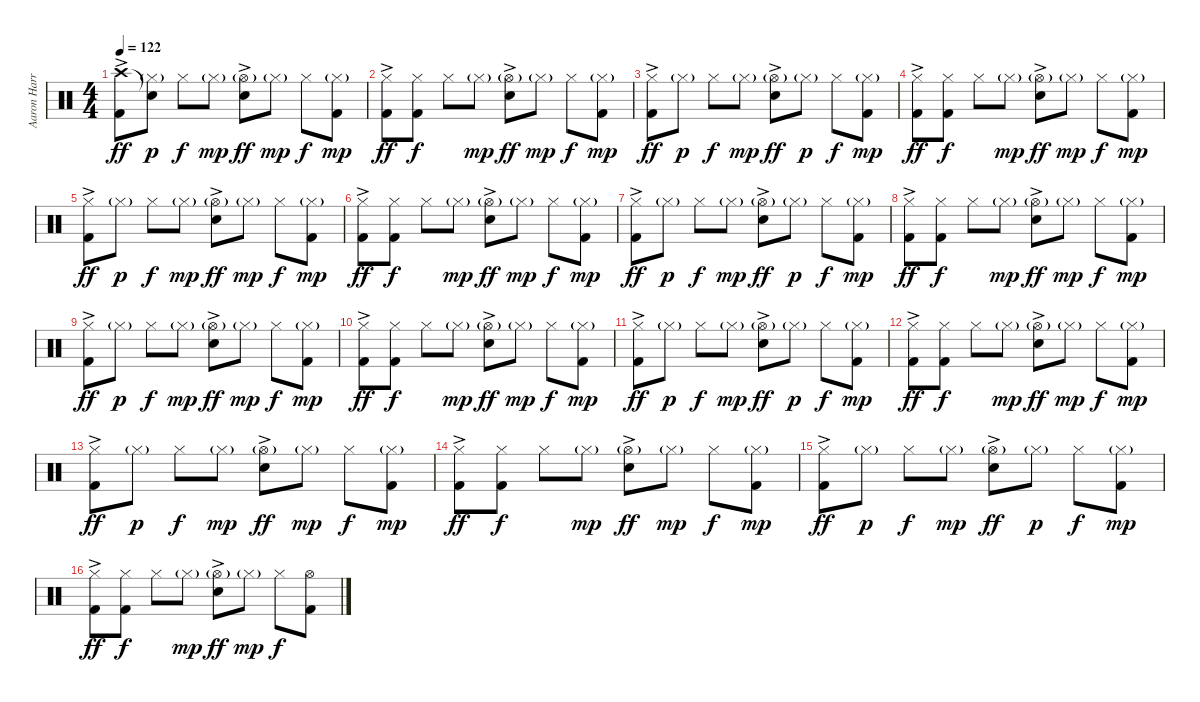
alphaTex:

\track ("Aaron Harris" "Aaron Harr") {instrument percussion}
\staff {score}
\articulation defaults
\ts (4 4)
\tempo 122
\clef neutral
\ks c
("Crash high (hit)" "Kick (hit) 2"{ac}).8{dy ff} ("Snare (hit)"{t} "Hi-Hat (closed)"{g}).8{dy p} "Hi-Hat (closed)".8{dy f} "Hi-Hat (closed)"{g}.8{dy mp} ("Hi-Hat (open)"{g} "Snare (hit) 2"{ac}).8{dy ff} "Hi-Hat (closed)"{g}.8{dy mp} "Hi-Hat (closed)".8{dy f} ("Hi-Hat (closed)"{g} "Kick (hit) 2").8{dy mp} |
("Hi-Hat (closed)" "Kick (hit) 2"{ac}).8{dy ff} ("Hi-Hat (closed)" "Kick (hit) 2").8{dy f} "Hi-Hat (closed)".8 "Hi-Hat (closed)"{g}.8{dy mp} ("Hi-Hat (open)"{g} "Snare (hit) 2"{ac}).8{dy ff} "Hi-Hat (closed)"{g}.8{dy mp} "Hi-Hat (closed)".8{dy f} ("Hi-Hat (closed)"{g} "Kick (hit) 2").8{dy mp} |
("Hi-Hat (closed)" "Kick (hit) 2"{ac}).8{dy ff} "Hi-Hat (closed)"{g}.8{dy p} "Hi-Hat (closed)".8{dy f} "Hi-Hat (closed)"{g}.8{dy mp} ("Hi-Hat (open)"{g} "Snare (hit) 2"{ac}).8{dy ff} "Hi-Hat (closed)"{g}.8{dy p} "Hi-Hat (closed)".8{dy f} ("Hi-Hat (closed)"{g} "Kick (hit) 2").8{dy mp} |
("Hi-Hat (closed)" "Kick (hit) 2"{ac}).8{dy ff} ("Hi-Hat (closed)" "Kick (hit) 2").8{dy f} "Hi-Hat (closed)".8 "Hi-Hat (closed)"{g}.8{dy mp} ("Hi-Hat (open)"{g} "Snare (hit) 2"{ac}).8{dy ff} "Hi-Hat (closed)"{g}.8{dy mp} "Hi-Hat (closed)".8{dy f} ("Hi-Hat (closed)"{g} "Kick (hit) 2").8{dy mp} |
("Hi-Hat (closed)" "Kick (hit) 2"{ac}).8{dy ff} "Hi-Hat (closed)"{g}.8{dy p} "Hi-Hat (closed)".8{dy f} "Hi-Hat (closed)"{g}.8{dy mp} ("Hi-Hat (open)"{g} "Snare (hit) 2"{ac}).8{dy ff} "Hi-Hat (closed)"{g}.8{dy mp} "Hi-Hat (closed)".8{dy f} ("Hi-Hat (closed)"{g} "Kick (hit) 2").8{dy mp} |
("Hi-Hat (closed)" "Kick (hit) 2"{ac}).8{dy ff} ("Hi-Hat (closed)" "Kick (hit) 2").8{dy f} "Hi-Hat (closed)".8 "Hi-Hat (closed)"{g}.8{dy mp} ("Hi-Hat (open)"{g} "Snare (hit) 2"{ac}).8{dy ff} "Hi-Hat (closed)"{g}.8{dy mp} "Hi-Hat (closed)".8{dy f} ("Hi-Hat (closed)"{g} "Kick (hit) 2").8{dy mp} |
("Hi-Hat (closed)" "Kick (hit) 2"{ac}).8{dy ff} "Hi-Hat (closed)"{g}.8{dy p} "Hi-Hat (closed)".8{dy f} "Hi-Hat (closed)"{g}.8{dy mp} ("Hi-Hat (open)"{g} "Snare (hit) 2"{ac}).8{dy ff} "Hi-Hat (closed)"{g}.8{dy p} "Hi-Hat (closed)".8{dy f} ("Hi-Hat (closed)"{g} "Kick (hit) 2").8{dy mp} |
("Hi-Hat (closed)" "Kick (hit) 2"{ac}).8{dy ff} ("Hi-Hat (closed)" "Kick (hit) 2").8{dy f} "Hi-Hat (closed)".8 "Hi-Hat (closed)"{g}.8{dy mp} ("Hi-Hat (open)"{g} "Snare (hit) 2"{ac}).8{dy ff} "Hi-Hat (closed)"{g}.8{dy mp} "Hi-Hat (closed)".8{dy f} ("Hi-Hat (closed)"{g} "Kick (hit) 2").8{dy mp} |
("Hi-Hat (closed)" "Kick (hit) 2"{ac}).8{dy ff} "Hi-Hat (closed)"{g}.8{dy p} "Hi-Hat (closed)".8{dy f} "Hi-Hat (closed)"{g}.8{dy mp} ("Hi-Hat (open)"{g} "Snare (hit) 2"{ac}).8{dy ff} "Hi-Hat (closed)"{g}.8{dy mp} "Hi-Hat (closed)".8{dy f} ("Hi-Hat (closed)"{g} "Kick (hit) 2").8{dy mp} |
("Hi-Hat (closed)" "Kick (hit) 2"{ac}).8{dy ff} ("Hi-Hat (closed)" "Kick (hit) 2").8{dy f} "Hi-Hat (closed)".8 "Hi-Hat (closed)"{g}.8{dy mp} ("Hi-Hat (open)"{g} "Snare (hit) 2"{ac}).8{dy ff} "Hi-Hat (closed)"{g}.8{dy mp} "Hi-Hat (closed)".8{dy f} ("Hi-Hat (closed)"{g} "Kick (hit) 2").8{dy mp} |
("Hi-Hat (closed)" "Kick (hit) 2"{ac}).8{dy ff} "Hi-Hat (closed)"{g}.8{dy p} "Hi-Hat (closed)".8{dy f} "Hi-Hat (closed)"{g}.8{dy mp} ("Hi-Hat (open)"{g} "Snare (hit) 2"{ac}).8{dy ff} "Hi-Hat (closed)"{g}.8{dy p} "Hi-Hat (closed)".8{dy f} ("Hi-Hat (closed)"{g} "Kick (hit) 2").8{dy mp} |
("Hi-Hat (closed)" "Kick (hit) 2"{ac}).8{dy ff} ("Hi-Hat (closed)" "Kick (hit) 2").8{dy f} "Hi-Hat (closed)".8 "Hi-Hat (closed)"{g}.8{dy mp} ("Hi-Hat (open)"{g} "Snare (hit) 2"{ac}).8{dy ff} "Hi-Hat (closed)"{g}.8{dy mp} "Hi-Hat (closed)".8{dy f} ("Hi-Hat (closed)"{g} "Kick (hit) 2").8{dy mp} |
("Hi-Hat (closed)" "Kick (hit) 2"{ac}).8{dy ff} "Hi-Hat (closed)"{g}.8{dy p} "Hi-Hat (closed)".8{dy f} "Hi-Hat (closed)"{g}.8{dy mp} ("Hi-Hat (open)"{g} "Snare (hit) 2"{ac}).8{dy ff} "Hi-Hat (closed)"{g}.8{dy mp} "Hi-Hat (closed)".8{dy f} ("Hi-Hat (closed)"{g} "Kick (hit) 2").8{dy mp} |
("Hi-Hat (closed)" "Kick (hit) 2"{ac}).8{dy ff} ("Hi-Hat (closed)" "Kick (hit) 2").8{dy f} "Hi-Hat (closed)".8 "Hi-Hat (closed)"{g}.8{dy mp} ("Hi-Hat (open)"{g} "Snare (hit) 2"{ac}).8{dy ff} "Hi-Hat (closed)"{g}.8{dy mp} "Hi-Hat (closed)".8{dy f} ("Hi-Hat (closed)"{g} "Kick (hit) 2").8{dy mp} |
("Hi-Hat (closed)" "Kick (hit) 2"{ac}).8{dy ff} "Hi-Hat (closed)"{g}.8{dy p} "Hi-Hat (closed)".8{dy f} "Hi-Hat (closed)"{g}.8{dy mp} ("Hi-Hat (open)"{g} "Snare (hit) 2"{ac}).8{dy ff} "Hi-Hat (closed)"{g}.8{dy p} "Hi-Hat (closed)".8{dy f} ("Hi-Hat (closed)"{g} "Kick (hit) 2").8{dy mp} |
("Hi-Hat (closed)" "Kick (hit) 2"{ac}).8{dy ff} ("Hi-Hat (closed)" "Kick (hit) 2").8{dy f} "Hi-Hat (closed)".8 "Hi-Hat (closed)"{g}.8{dy mp} ("Hi-Hat (open)"{g} "Snare (hit) 2"{ac}).8{dy ff} "Hi-Hat (closed)"{g}.8{dy mp} "Hi-Hat (closed)".8{dy f} ("Hi-Hat (open)" "Kick (hit) 2").8
